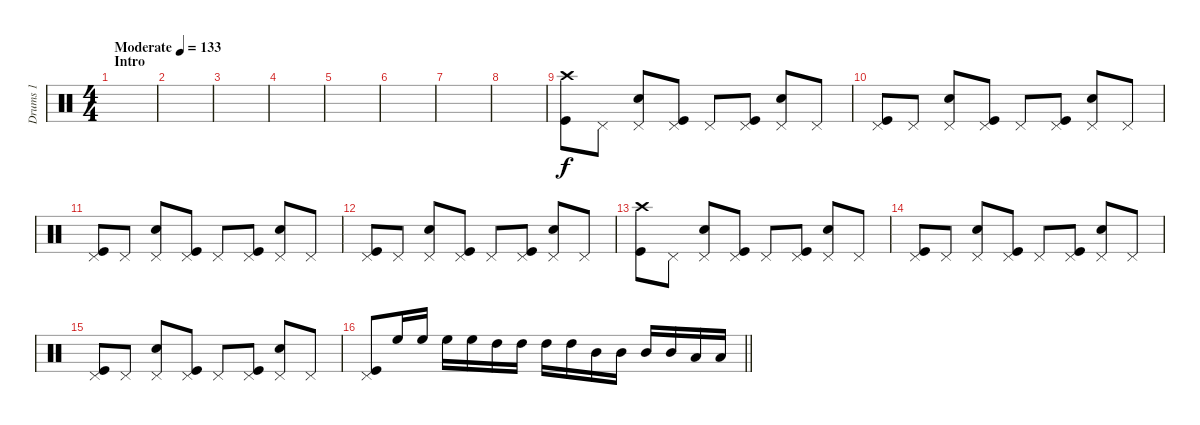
\track ("Drums 1" "Drums 1") {instrument percussion}
\staff {score}
\articulation defaults
\ts (4 4)
\section ("" "Intro")
\tempo (133 "Moderate")
\clef neutral
\ks c
|
|
|
|
|
|
|
|
("Crash high (hit)" "Kick (hit)").8 "Pedal Hi-Hat (hit)".8 ("Pedal Hi-Hat (hit)" "Electric Snare (hit)").8 ("Pedal Hi-Hat (hit)" "Kick (hit)").8 "Pedal Hi-Hat (hit)".8 ("Pedal Hi-Hat (hit)" "Kick (hit)").8 ("Pedal Hi-Hat (hit)" "Electric Snare (hit)").8 "Pedal Hi-Hat (hit)".8 |
("Pedal Hi-Hat (hit)" "Kick (hit)").8 "Pedal Hi-Hat (hit)".8 ("Pedal Hi-Hat (hit)" "Electric Snare (hit)").8 ("Pedal Hi-Hat (hit)" "Kick (hit)").8 "Pedal Hi-Hat (hit)".8 ("Pedal Hi-Hat (hit)" "Kick (hit)").8 ("Pedal Hi-Hat (hit)" "Electric Snare (hit)").8 "Pedal Hi-Hat (hit)".8 |
("Pedal Hi-Hat (hit)" "Kick (hit)").8 "Pedal Hi-Hat (hit)".8 ("Pedal Hi-Hat (hit)" "Electric Snare (hit)").8 ("Pedal Hi-Hat (hit)" "Kick (hit)").8 "Pedal Hi-Hat (hit)".8 ("Pedal Hi-Hat (hit)" "Kick (hit)").8 ("Pedal Hi-Hat (hit)" "Electric Snare (hit)").8 "Pedal Hi-Hat (hit)".8 |
("Pedal Hi-Hat (hit)" "Kick (hit)").8 "Pedal Hi-Hat (hit)".8 ("Pedal Hi-Hat (hit)" "Electric Snare (hit)").8 ("Pedal Hi-Hat (hit)" "Kick (hit)").8 "Pedal Hi-Hat (hit)".8 ("Pedal Hi-Hat (hit)" "Kick (hit)").8 ("Pedal Hi-Hat (hit)" "Electric Snare (hit)").8 "Pedal Hi-Hat (hit)".8 |
("Crash high (hit)" "Kick (hit)").8 "Pedal Hi-Hat (hit)".8 ("Pedal Hi-Hat (hit)" "Electric Snare (hit)").8 ("Pedal Hi-Hat (hit)" "Kick (hit)").8 "Pedal Hi-Hat (hit)".8 ("Pedal Hi-Hat (hit)" "Kick (hit)").8 ("Pedal Hi-Hat (hit)" "Electric Snare (hit)").8 "Pedal Hi-Hat (hit)".8 |
("Pedal Hi-Hat (hit)" "Kick (hit)").8 "Pedal Hi-Hat (hit)".8 ("Pedal Hi-Hat (hit)" "Electric Snare (hit)").8 ("Pedal Hi-Hat (hit)" "Kick (hit)").8 "Pedal Hi-Hat (hit)".8 ("Pedal Hi-Hat (hit)" "Kick (hit)").8 ("Pedal Hi-Hat (hit)" "Electric Snare (hit)").8 "Pedal Hi-Hat (hit)".8 |
("Pedal Hi-Hat (hit)" "Kick (hit)").8 "Pedal Hi-Hat (hit)".8 ("Pedal Hi-Hat (hit)" "Electric Snare (hit)").8 ("Pedal Hi-Hat (hit)" "Kick (hit)").8 "Pedal Hi-Hat (hit)".8 ("Pedal Hi-Hat (hit)" "Kick (hit)").8 ("Pedal Hi-Hat (hit)" "Electric Snare (hit)").8 "Pedal Hi-Hat (hit)".8 |
\barLineRight lightlight
("Pedal Hi-Hat (hit)" "Kick (hit)").8 "High Floor Tom (hit)".16 "High Floor Tom (hit)".16 "High Floor Tom (hit)".16 "High Floor Tom (hit)".16 "High Tom (hit)".16 "High Tom (hit)".16 "High Tom (hit)".16 "High Tom (hit)".16 "Mid Tom (hit)".16 "Mid Tom (hit)".16 "Mid Tom (hit)".16 "Mid Tom (hit)".16 "Low Tom (hit)".16 "Low Tom (hit)".16
